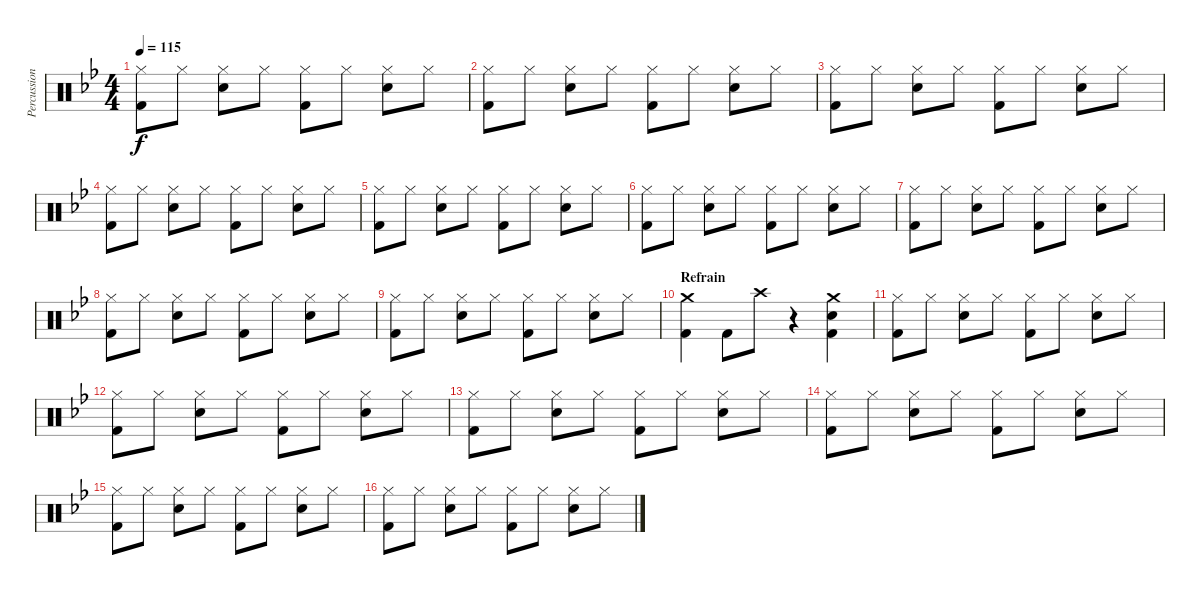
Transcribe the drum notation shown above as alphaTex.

\track ("Percussions" "Percussion") {instrument percussion}
\staff {score}
\articulation defaults
\ts (4 4)
\tempo 115
\clef neutral
\ks bb
("Hi-Hat (closed)" "Kick (hit) 2").8{dy f} "Hi-Hat (closed)".8 ("Hi-Hat (closed)" "Electric Snare (hit)").8 "Hi-Hat (closed)".8 ("Hi-Hat (closed)" "Kick (hit) 2").8 "Hi-Hat (closed)".8 ("Hi-Hat (closed)" "Electric Snare (hit)").8 "Hi-Hat (closed)".8 |
("Hi-Hat (closed)" "Kick (hit) 2").8 "Hi-Hat (closed)".8 ("Hi-Hat (closed)" "Electric Snare (hit)").8 "Hi-Hat (closed)".8 ("Hi-Hat (closed)" "Kick (hit) 2").8 "Hi-Hat (closed)".8 ("Hi-Hat (closed)" "Electric Snare (hit)").8 "Hi-Hat (closed)".8 |
("Hi-Hat (closed)" "Kick (hit) 2").8 "Hi-Hat (closed)".8 ("Hi-Hat (closed)" "Electric Snare (hit)").8 "Hi-Hat (closed)".8 ("Hi-Hat (closed)" "Kick (hit) 2").8 "Hi-Hat (closed)".8 ("Hi-Hat (closed)" "Electric Snare (hit)").8 "Hi-Hat (closed)".8 |
("Hi-Hat (closed)" "Kick (hit) 2").8 "Hi-Hat (closed)".8 ("Hi-Hat (closed)" "Electric Snare (hit)").8 "Hi-Hat (closed)".8 ("Hi-Hat (closed)" "Kick (hit) 2").8 "Hi-Hat (closed)".8 ("Hi-Hat (closed)" "Electric Snare (hit)").8 "Hi-Hat (closed)".8 |
("Hi-Hat (closed)" "Kick (hit) 2").8 "Hi-Hat (closed)".8 ("Hi-Hat (closed)" "Electric Snare (hit)").8 "Hi-Hat (closed)".8 ("Hi-Hat (closed)" "Kick (hit) 2").8 "Hi-Hat (closed)".8 ("Hi-Hat (closed)" "Electric Snare (hit)").8 "Hi-Hat (closed)".8 |
("Hi-Hat (closed)" "Kick (hit) 2").8 "Hi-Hat (closed)".8 ("Hi-Hat (closed)" "Electric Snare (hit)").8 "Hi-Hat (closed)".8 ("Hi-Hat (closed)" "Kick (hit) 2").8 "Hi-Hat (closed)".8 ("Hi-Hat (closed)" "Electric Snare (hit)").8 "Hi-Hat (closed)".8 |
("Hi-Hat (closed)" "Kick (hit) 2").8 "Hi-Hat (closed)".8 ("Hi-Hat (closed)" "Electric Snare (hit)").8 "Hi-Hat (closed)".8 ("Hi-Hat (closed)" "Kick (hit) 2").8 "Hi-Hat (closed)".8 ("Hi-Hat (closed)" "Electric Snare (hit)").8 "Hi-Hat (closed)".8 |
("Hi-Hat (closed)" "Kick (hit) 2").8 "Hi-Hat (closed)".8 ("Hi-Hat (closed)" "Electric Snare (hit)").8 "Hi-Hat (closed)".8 ("Hi-Hat (closed)" "Kick (hit) 2").8 "Hi-Hat (closed)".8 ("Hi-Hat (closed)" "Electric Snare (hit)").8 "Hi-Hat (closed)".8 |
("Hi-Hat (closed)" "Kick (hit) 2").8 "Hi-Hat (closed)".8 ("Hi-Hat (closed)" "Electric Snare (hit)").8 "Hi-Hat (closed)".8 ("Hi-Hat (closed)" "Kick (hit) 2").8 "Hi-Hat (closed)".8 ("Hi-Hat (closed)" "Electric Snare (hit)").8 "Hi-Hat (closed)".8 |
\section ("" "Refrain")
("Crash medium (hit)" "Kick (hit) 2").4 "Kick (hit) 2".8 "Crash high (hit)".8 r.4 ("Crash medium (hit)" "Electric Snare (hit)" "Kick (hit) 2").4 |
("Hi-Hat (closed)" "Kick (hit) 2").8 "Hi-Hat (closed)".8 ("Hi-Hat (closed)" "Electric Snare (hit)").8 "Hi-Hat (closed)".8 ("Hi-Hat (closed)" "Kick (hit) 2").8 "Hi-Hat (closed)".8 ("Hi-Hat (closed)" "Electric Snare (hit)").8 "Hi-Hat (closed)".8 |
("Hi-Hat (closed)" "Kick (hit) 2").8 "Hi-Hat (closed)".8 ("Hi-Hat (closed)" "Electric Snare (hit)").8 "Hi-Hat (closed)".8 ("Hi-Hat (closed)" "Kick (hit) 2").8 "Hi-Hat (closed)".8 ("Hi-Hat (closed)" "Electric Snare (hit)").8 "Hi-Hat (closed)".8 |
("Hi-Hat (closed)" "Kick (hit) 2").8 "Hi-Hat (closed)".8 ("Hi-Hat (closed)" "Electric Snare (hit)").8 "Hi-Hat (closed)".8 ("Hi-Hat (closed)" "Kick (hit) 2").8 "Hi-Hat (closed)".8 ("Hi-Hat (closed)" "Electric Snare (hit)").8 "Hi-Hat (closed)".8 |
("Hi-Hat (closed)" "Kick (hit) 2").8 "Hi-Hat (closed)".8 ("Hi-Hat (closed)" "Electric Snare (hit)").8 "Hi-Hat (closed)".8 ("Hi-Hat (closed)" "Kick (hit) 2").8 "Hi-Hat (closed)".8 ("Hi-Hat (closed)" "Electric Snare (hit)").8 "Hi-Hat (closed)".8 |
("Hi-Hat (closed)" "Kick (hit) 2").8 "Hi-Hat (closed)".8 ("Hi-Hat (closed)" "Electric Snare (hit)").8 "Hi-Hat (closed)".8 ("Hi-Hat (closed)" "Kick (hit) 2").8 "Hi-Hat (closed)".8 ("Hi-Hat (closed)" "Electric Snare (hit)").8 "Hi-Hat (closed)".8 |
("Hi-Hat (closed)" "Kick (hit) 2").8 "Hi-Hat (closed)".8 ("Hi-Hat (closed)" "Electric Snare (hit)").8 "Hi-Hat (closed)".8 ("Hi-Hat (closed)" "Kick (hit) 2").8 "Hi-Hat (closed)".8 ("Hi-Hat (closed)" "Electric Snare (hit)").8 "Hi-Hat (closed)".8
